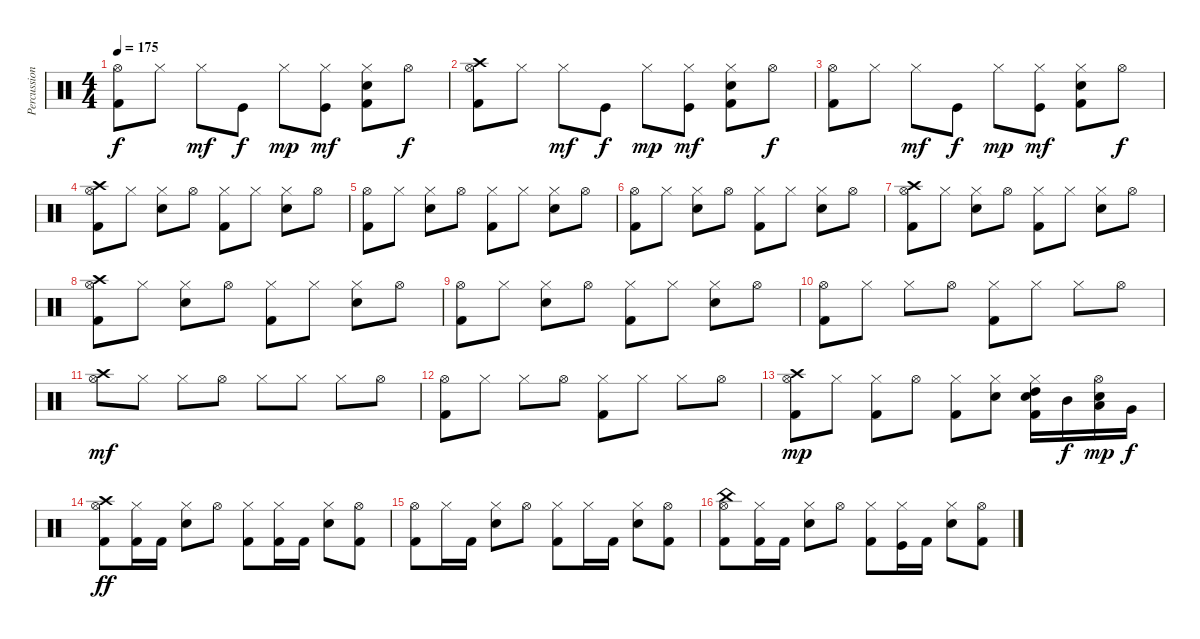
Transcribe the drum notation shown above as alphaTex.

\track ("Percussion" "Percussion") {instrument percussion}
\staff {score}
\articulation defaults
\ts (4 4)
\tempo 175
\clef neutral
\ks c
("Kick (hit) 2" "Hi-Hat (open)").8{dy f} "Hi-Hat (closed)".8 "Hi-Hat (closed)".8{dy mf} "Kick (hit)".8{dy f} "Hi-Hat (closed)".8{dy mp} ("Kick (hit)" "Hi-Hat (closed)").8{dy mf} ("Kick (hit) 2" "Electric Snare (hit)" "Hi-Hat (closed)").8 "Hi-Hat (open)".8{dy f} |
("Kick (hit) 2" "Hi-Hat (open)" "Crash high (hit)").8 "Hi-Hat (closed)".8 "Hi-Hat (closed)".8{dy mf} "Kick (hit)".8{dy f} "Hi-Hat (closed)".8{dy mp} ("Kick (hit)" "Hi-Hat (closed)").8{dy mf} ("Kick (hit) 2" "Electric Snare (hit)" "Hi-Hat (closed)").8 "Hi-Hat (open)".8{dy f} |
("Kick (hit) 2" "Hi-Hat (open)").8 "Hi-Hat (closed)".8 "Hi-Hat (closed)".8{dy mf} "Kick (hit)".8{dy f} "Hi-Hat (closed)".8{dy mp} ("Kick (hit)" "Hi-Hat (closed)").8{dy mf} ("Kick (hit) 2" "Electric Snare (hit)" "Hi-Hat (closed)").8 "Hi-Hat (open)".8{dy f} |
("Kick (hit) 2" "Hi-Hat (open)" "Crash high (hit)").8 "Hi-Hat (closed)".8 ("Snare (hit) 2" "Hi-Hat (closed)").8 "Hi-Hat (open)".8 ("Kick (hit) 2" "Hi-Hat (closed)").8 "Hi-Hat (closed)".8 ("Snare (hit) 2" "Hi-Hat (closed)").8 "Hi-Hat (open)".8 |
("Kick (hit) 2" "Hi-Hat (open)").8 "Hi-Hat (closed)".8 ("Snare (hit) 2" "Hi-Hat (closed)").8 "Hi-Hat (open)".8 ("Kick (hit) 2" "Hi-Hat (closed)").8 "Hi-Hat (closed)".8 ("Snare (hit) 2" "Hi-Hat (closed)").8 "Hi-Hat (open)".8 |
("Kick (hit) 2" "Hi-Hat (open)").8 "Hi-Hat (closed)".8 ("Snare (hit) 2" "Hi-Hat (closed)").8 "Hi-Hat (open)".8 ("Kick (hit) 2" "Hi-Hat (closed)").8 "Hi-Hat (closed)".8 ("Snare (hit) 2" "Hi-Hat (closed)").8 "Hi-Hat (open)".8 |
("Kick (hit) 2" "Hi-Hat (open)" "Crash high (hit)").8 "Hi-Hat (closed)".8 ("Snare (hit) 2" "Hi-Hat (closed)").8 "Hi-Hat (open)".8 ("Kick (hit) 2" "Hi-Hat (closed)").8 "Hi-Hat (closed)".8 ("Snare (hit) 2" "Hi-Hat (closed)").8 "Hi-Hat (open)".8 |
("Kick (hit) 2" "Hi-Hat (open)" "Crash high (hit)").8 "Hi-Hat (closed)".8 ("Snare (hit) 2" "Hi-Hat (closed)").8 "Hi-Hat (open)".8 ("Kick (hit) 2" "Hi-Hat (closed)").8 "Hi-Hat (closed)".8 ("Snare (hit) 2" "Hi-Hat (closed)").8 "Hi-Hat (open)".8 |
("Kick (hit) 2" "Hi-Hat (open)").8 "Hi-Hat (closed)".8 ("Snare (hit) 2" "Hi-Hat (closed)").8 "Hi-Hat (open)".8 ("Kick (hit) 2" "Hi-Hat (closed)").8 "Hi-Hat (closed)".8 ("Snare (hit) 2" "Hi-Hat (closed)").8 "Hi-Hat (open)".8 |
("Kick (hit) 2" "Hi-Hat (open)").8 "Hi-Hat (closed)".8 "Hi-Hat (closed)".8 "Hi-Hat (open)".8 ("Kick (hit) 2" "Hi-Hat (closed)").8 "Hi-Hat (closed)".8 "Hi-Hat (closed)".8 "Hi-Hat (open)".8 |
("Hi-Hat (open)" "Crash high (hit)").8{dy mf} "Hi-Hat (closed)".8 "Hi-Hat (closed)".8 "Hi-Hat (open)".8 "Hi-Hat (closed)".8 "Hi-Hat (closed)".8 "Hi-Hat (closed)".8 "Hi-Hat (open)".8 |
("Kick (hit) 2" "Hi-Hat (open)").8 "Hi-Hat (closed)".8 "Hi-Hat (closed)".8 "Hi-Hat (open)".8 ("Kick (hit) 2" "Hi-Hat (closed)").8 "Hi-Hat (closed)".8 "Hi-Hat (closed)".8 "Hi-Hat (open)".8 |
("Hi-Hat (open)" "Crash high (hit)" "Kick (hit) 2").8{dy mp} "Hi-Hat (closed)".8 ("Hi-Hat (closed)" "Kick (hit) 2").8 "Hi-Hat (open)".8 ("Hi-Hat (closed)" "Kick (hit) 2").8 ("Hi-Hat (closed)" "Snare (hit) 2").8 ("Hi-Hat (closed)" "Kick (hit) 2" "Electric Snare (hit)" "High Tom (hit)").16 "Mid Tom (hit)".16{dy f} ("Hi-Hat (open)" "Snare (hit) 2" "Low Tom (hit)").16{dy mp} "Very Low Tom (hit)".16{dy f} |
("Hi-Hat (open)" "Kick (hit) 2" "Crash high (hit)").8{dy ff} ("Hi-Hat (closed)" "Kick (hit) 2").16 "Kick (hit) 2".16 ("Hi-Hat (closed)" "Electric Snare (hit)").8 "Hi-Hat (open)".8 ("Hi-Hat (closed)" "Kick (hit) 2").8 ("Hi-Hat (closed)" "Kick (hit) 2").16 "Kick (hit) 2".16 ("Hi-Hat (closed)" "Electric Snare (hit)").8 ("Hi-Hat (open)" "Kick (hit) 2").8 |
("Hi-Hat (open)" "Kick (hit) 2").8 "Hi-Hat (closed)".16 "Kick (hit) 2".16 ("Hi-Hat (closed)" "Electric Snare (hit)").8 "Hi-Hat (open)".8 ("Hi-Hat (closed)" "Kick (hit) 2").8 "Hi-Hat (closed)".16 "Kick (hit) 2".16 ("Hi-Hat (closed)" "Electric Snare (hit)").8 ("Hi-Hat (open)" "Kick (hit) 2").8 |
("Hi-Hat (open)" "Kick (hit) 2" "China (hit)").8 ("Hi-Hat (closed)" "Kick (hit) 2").16 "Kick (hit) 2".16 ("Hi-Hat (closed)" "Electric Snare (hit)").8 "Hi-Hat (open)".8 ("Hi-Hat (closed)" "Kick (hit) 2").8 ("Hi-Hat (closed)" "Kick (hit)").16 "Kick (hit) 2".16 ("Hi-Hat (closed)" "Electric Snare (hit)").8 ("Hi-Hat (open)" "Kick (hit) 2").8
